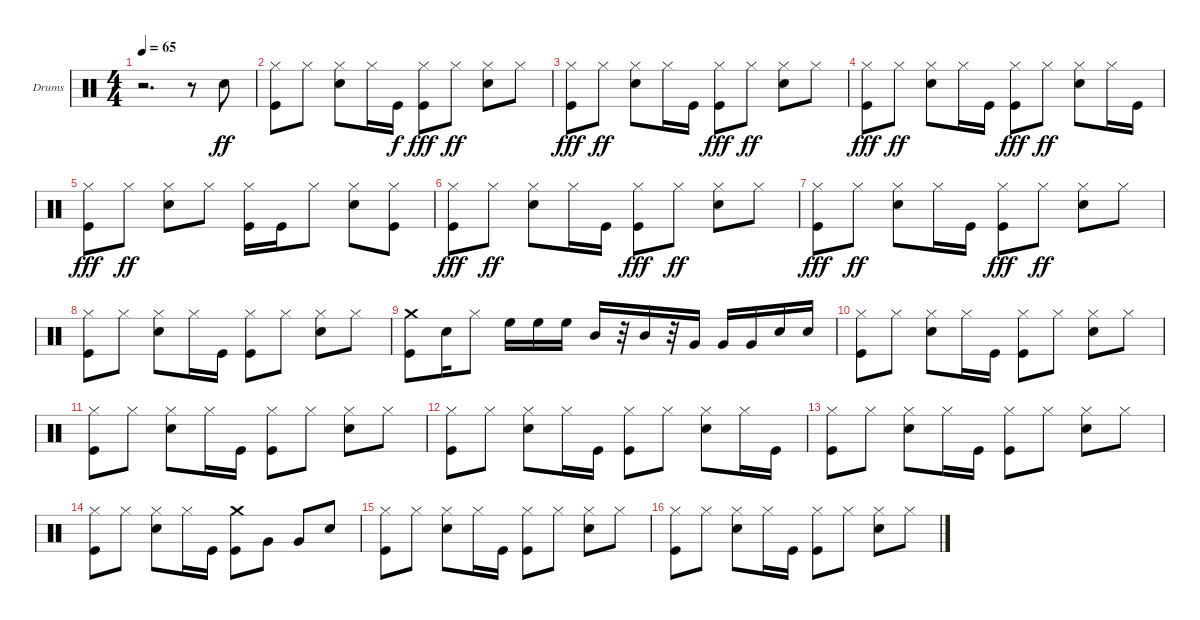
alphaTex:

\bracketExtendMode groupsimilarinstruments
\firstSystemTrackNameOrientation horizontal
\otherSystemsTrackNameOrientation horizontal
\track ("Drumkit" "Drums") {instrument percussion}
\staff {score}
\articulation defaults
\ts (4 4)
\tempo 65
\clef neutral
\scale
0.474178
\ks c
r.2{d dy ff} r.8 "Snare (hit) 2".8 |
\scale
0.262911 ("Hi-Hat (closed)" "Kick (hit)").8 "Hi-Hat (closed)".8 ("Snare (hit) 2" "Hi-Hat (closed)").8 "Hi-Hat (closed)".16 "Kick (hit)".16{dy f} ("Kick (hit)" "Hi-Hat (closed)").8{dy fff} "Hi-Hat (closed)".8{dy ff} ("Hi-Hat (closed)" "Snare (hit) 2").8 "Hi-Hat (closed)".8 |
\scale
0.262911 ("Kick (hit)" "Hi-Hat (closed)").8{dy fff} "Hi-Hat (closed)".8{dy ff} ("Snare (hit) 2" "Hi-Hat (closed)").8 "Hi-Hat (closed)".16 "Kick (hit)".16 ("Kick (hit)" "Hi-Hat (closed)").8{dy fff} "Hi-Hat (closed)".8{dy ff} ("Hi-Hat (closed)" "Snare (hit) 2").8 "Hi-Hat (closed)".8 |
\scale
0.333333 ("Kick (hit)" "Hi-Hat (closed)").8{dy fff} "Hi-Hat (closed)".8{dy ff} ("Snare (hit) 2" "Hi-Hat (closed)").8 "Hi-Hat (closed)".16 "Kick (hit)".16 ("Kick (hit)" "Hi-Hat (closed)").8{dy fff} "Hi-Hat (closed)".8{dy ff} ("Hi-Hat (closed)" "Snare (hit) 2").8 "Hi-Hat (closed)".16 "Kick (hit)".16 |
\scale
0.333333 ("Kick (hit)" "Hi-Hat (closed)").8{dy fff} "Hi-Hat (closed)".8{dy ff} ("Snare (hit) 2" "Hi-Hat (closed)").8 "Hi-Hat (closed)".8 ("Kick (hit)" "Hi-Hat (closed)").16 "Kick (hit)".16 "Hi-Hat (closed)".8 ("Hi-Hat (closed)" "Snare (hit) 2").8 ("Kick (hit)" "Hi-Hat (closed)").8 |
\scale
0.333333 ("Kick (hit)" "Hi-Hat (closed)").8{dy fff} "Hi-Hat (closed)".8{dy ff} ("Snare (hit) 2" "Hi-Hat (closed)").8 "Hi-Hat (closed)".16 "Kick (hit)".16 ("Kick (hit)" "Hi-Hat (closed)").8{dy fff} "Hi-Hat (closed)".8{dy ff} ("Hi-Hat (closed)" "Snare (hit) 2").8 "Hi-Hat (closed)".8 |
\scale
0.333333 ("Kick (hit)" "Hi-Hat (closed)").8{dy fff} "Hi-Hat (closed)".8{dy ff} ("Snare (hit) 2" "Hi-Hat (closed)").8 "Hi-Hat (closed)".16 "Kick (hit)".16 ("Kick (hit)" "Hi-Hat (closed)").8{dy fff} "Hi-Hat (closed)".8{dy ff} ("Hi-Hat (closed)" "Snare (hit) 2").8 "Hi-Hat (closed)".8 |
\scale
0.333333 ("Hi-Hat (closed)" "Kick (hit)").8 "Hi-Hat (closed)".8 ("Snare (hit) 2" "Hi-Hat (closed)").8 "Hi-Hat (closed)".16 "Kick (hit)".16 ("Hi-Hat (closed)" "Kick (hit)").8 "Hi-Hat (closed)".8 ("Hi-Hat (closed)" "Snare (hit) 2").8 "Hi-Hat (closed)".8 |
\scale
0.333333 ("Crash medium (hit)" "Kick (hit)").8 "Snare (hit) 2".16 "Hi-Hat (closed)".8 "High Floor Tom (hit)".16 "High Floor Tom (hit)".16 "High Floor Tom (hit)".16 "Mid Tom (hit)".16 r.32 "Mid Tom (hit)".16 r.32 "Very Low Tom (hit)".16 "Very Low Tom (hit)".16 "Very Low Tom (hit)".16 "Snare (hit) 2".16 "Snare (hit) 2".16 |
\scale
0.333333 ("Hi-Hat (closed)" "Kick (hit)").8 "Hi-Hat (closed)".8 ("Snare (hit) 2" "Hi-Hat (closed)").8 "Hi-Hat (closed)".16 "Kick (hit)".16 ("Hi-Hat (closed)" "Kick (hit)").8 "Hi-Hat (closed)".8 ("Hi-Hat (closed)" "Snare (hit) 2").8 "Hi-Hat (closed)".8 |
\scale
0.333333 ("Hi-Hat (closed)" "Kick (hit)").8 "Hi-Hat (closed)".8 ("Snare (hit) 2" "Hi-Hat (closed)").8 "Hi-Hat (closed)".16 "Kick (hit)".16 ("Hi-Hat (closed)" "Kick (hit)").8 "Hi-Hat (closed)".8 ("Hi-Hat (closed)" "Snare (hit) 2").8 "Hi-Hat (closed)".8 |
\scale
0.333333 ("Hi-Hat (closed)" "Kick (hit)").8 "Hi-Hat (closed)".8 ("Snare (hit) 2" "Hi-Hat (closed)").8 "Hi-Hat (closed)".16 "Kick (hit)".16 ("Hi-Hat (closed)" "Kick (hit)").8 "Hi-Hat (closed)".8 ("Hi-Hat (closed)" "Snare (hit) 2").8 "Hi-Hat (closed)".16 "Kick (hit)".16 |
\scale
0.333333 ("Hi-Hat (closed)" "Kick (hit)").8 "Hi-Hat (closed)".8 ("Snare (hit) 2" "Hi-Hat (closed)").8 "Hi-Hat (closed)".16 "Kick (hit)".16 ("Hi-Hat (closed)" "Kick (hit)").8 "Hi-Hat (closed)".8 ("Hi-Hat (closed)" "Snare (hit) 2").8 "Hi-Hat (closed)".8 |
\scale
0.333333 ("Hi-Hat (closed)" "Kick (hit)").8 "Hi-Hat (closed)".8 ("Snare (hit) 2" "Hi-Hat (closed)").8 "Hi-Hat (closed)".16 "Kick (hit)".16 ("Crash medium (hit)" "Kick (hit)").8 "Very Low Tom (hit)".8 "Very Low Tom (hit)".8 "Snare (hit) 2".8 |
\scale
0.333333 ("Hi-Hat (closed)" "Kick (hit)").8 "Hi-Hat (closed)".8 ("Snare (hit) 2" "Hi-Hat (closed)").8 "Hi-Hat (closed)".16 "Kick (hit)".16 ("Hi-Hat (closed)" "Kick (hit)").8 "Hi-Hat (closed)".8 ("Hi-Hat (closed)" "Snare (hit) 2").8 "Hi-Hat (closed)".8 |
\scale
0.333333 ("Hi-Hat (closed)" "Kick (hit)").8 "Hi-Hat (closed)".8 ("Snare (hit) 2" "Hi-Hat (closed)").8 "Hi-Hat (closed)".16 "Kick (hit)".16 ("Hi-Hat (closed)" "Kick (hit)").8 "Hi-Hat (closed)".8 ("Hi-Hat (closed)" "Snare (hit) 2").8 "Hi-Hat (closed)".8
